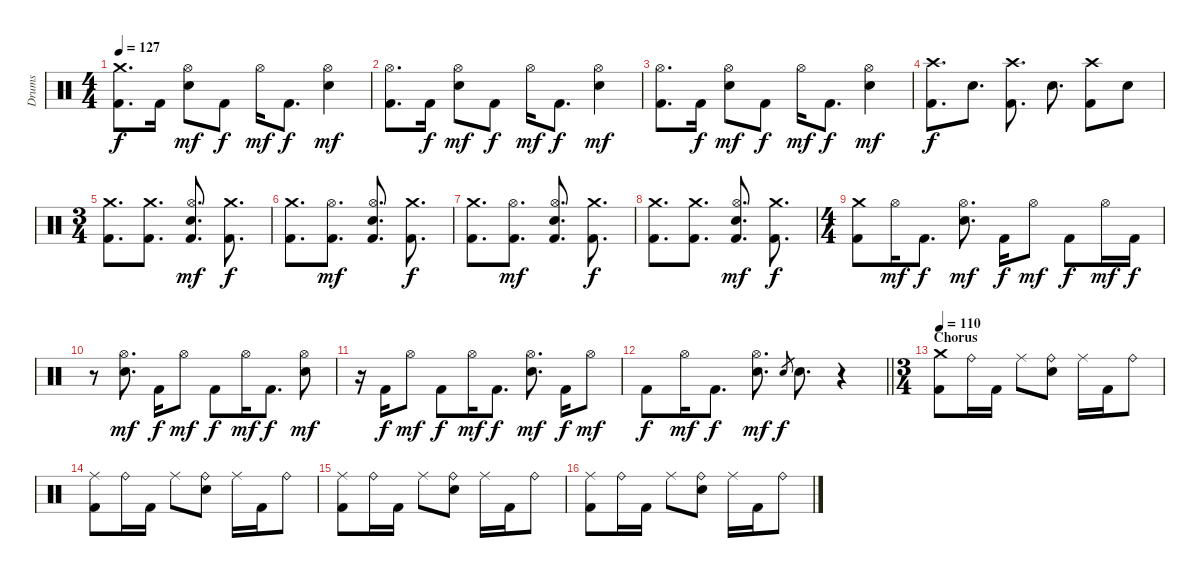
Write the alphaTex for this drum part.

\track ("Drums" "Drums") {instrument percussion}
\staff {score}
\articulation defaults
\ts (4 4)
\tempo 127
\clef neutral
\ks c
("Kick (hit) 2" "Crash medium (hit)").8{d dy f} "Kick (hit) 2".16 ("Hi-Hat (open)" "Electric Snare (hit)").8{dy mf} "Kick (hit) 2".8{dy f} "Hi-Hat (open)".16{dy mf} "Kick (hit) 2".8{d dy f} ("Hi-Hat (open)" "Electric Snare (hit)").4{dy mf} |
("Kick (hit) 2" "Hi-Hat (open)").8{d} "Kick (hit) 2".16{dy f} ("Hi-Hat (open)" "Electric Snare (hit)").8{dy mf} "Kick (hit) 2".8{dy f} "Hi-Hat (open)".16{dy mf} "Kick (hit) 2".8{d dy f} ("Hi-Hat (open)" "Electric Snare (hit)").4{dy mf} |
("Kick (hit) 2" "Hi-Hat (open)").8{d} "Kick (hit) 2".16{dy f} ("Hi-Hat (open)" "Electric Snare (hit)").8{dy mf} "Kick (hit) 2".8{dy f} "Hi-Hat (open)".16{dy mf} "Kick (hit) 2".8{d dy f} ("Hi-Hat (open)" "Electric Snare (hit)").4{dy mf} |
("Kick (hit) 2" "Crash high (hit)").8{d dy f} "Electric Snare (hit)".8{d} ("Kick (hit) 2" "Crash high (hit)").8{d} "Electric Snare (hit)".8{d} ("Kick (hit) 2" "Crash high (hit)").8 "Electric Snare (hit)".8 |
\ts (3 4)
("Kick (hit) 2" "Crash medium (hit)").8{d} ("Kick (hit) 2" "Crash medium (hit)").8{d} ("Kick (hit) 2" "Hi-Hat (open)" "Electric Snare (hit)").8{d dy mf} ("Kick (hit) 2" "Crash medium (hit)").8{d dy f} |
("Kick (hit) 2" "Crash medium (hit)").8{d} ("Kick (hit) 2" "Hi-Hat (open)").8{d dy mf} ("Kick (hit) 2" "Hi-Hat (open)" "Electric Snare (hit)").8{d} ("Kick (hit) 2" "Crash medium (hit)").8{d dy f} |
("Kick (hit) 2" "Crash medium (hit)").8{d} ("Kick (hit) 2" "Hi-Hat (open)").8{d dy mf} ("Kick (hit) 2" "Hi-Hat (open)" "Electric Snare (hit)").8{d} ("Kick (hit) 2" "Crash medium (hit)").8{d dy f} |
("Kick (hit) 2" "Crash medium (hit)").8{d} ("Kick (hit) 2" "Crash medium (hit)").8{d} ("Kick (hit) 2" "Hi-Hat (open)" "Electric Snare (hit)").8{d dy mf} ("Kick (hit) 2" "Crash medium (hit)").8{d dy f} |
\ts (4 4)
("Kick (hit) 2" "Crash medium (hit)").8 "Hi-Hat (open)".16{dy mf} "Kick (hit) 2".8{d dy f} ("Hi-Hat (open)" "Electric Snare (hit)").8{d dy mf} "Kick (hit) 2".16{dy f} "Hi-Hat (open)".8{dy mf} "Kick (hit) 2".8{dy f} "Hi-Hat (open)".16{dy mf} "Kick (hit) 2".16{dy f} |
r.8 ("Hi-Hat (open)" "Electric Snare (hit)").8{d dy mf} "Kick (hit) 2".16{dy f} "Hi-Hat (open)".8{dy mf} "Kick (hit) 2".8{dy f} "Hi-Hat (open)".16{dy mf} "Kick (hit) 2".8{d dy f} ("Hi-Hat (open)" "Electric Snare (hit)").8{dy mf} |
r.16 "Kick (hit) 2".16{dy f} "Hi-Hat (open)".8{dy mf} "Kick (hit) 2".8{dy f} "Hi-Hat (open)".16{dy mf} "Kick (hit) 2".8{d dy f} ("Hi-Hat (open)" "Electric Snare (hit)").8{d dy mf} "Kick (hit) 2".16{dy f} "Hi-Hat (open)".8{dy mf} |
\barLineRight lightlight "Kick (hit) 2".8{dy f} "Hi-Hat (open)".16{dy mf} "Kick (hit) 2".8{d dy f}
("Hi-Hat (open)" "Electric Snare (hit)").8{d dy mf} "Electric Snare (hit)".8{gr dy f} "Electric Snare (hit)".8{d} r.4 |
\ts (3 4)
\section ("" "Chorus")
\tempo 110
("Kick (hit) 2" "Crash medium (hit)").8 "Ride (bell)".16 "Kick (hit) 2".16 "Ride (middle)".8 ("Ride (bell)" "Electric Snare (hit)").8 "Ride (middle)".16 "Kick (hit) 2".16 "Ride (bell)".8 |
("Kick (hit) 2" "Ride (middle)").8 "Ride (bell)".16 "Kick (hit) 2".16 "Ride (middle)".8 ("Ride (bell)" "Electric Snare (hit)").8 "Ride (middle)".16 "Kick (hit) 2".16 "Ride (bell)".8 |
("Kick (hit) 2" "Ride (middle)").8 "Ride (bell)".16 "Kick (hit) 2".16 "Ride (middle)".8 ("Ride (bell)" "Electric Snare (hit)").8 "Ride (middle)".16 "Kick (hit) 2".16 "Ride (bell)".8 |
("Kick (hit) 2" "Ride (middle)").8 "Ride (bell)".16 "Kick (hit) 2".16 "Ride (middle)".8 ("Ride (bell)" "Electric Snare (hit)").8 "Ride (middle)".16 "Kick (hit) 2".16 "Ride (bell)".8
